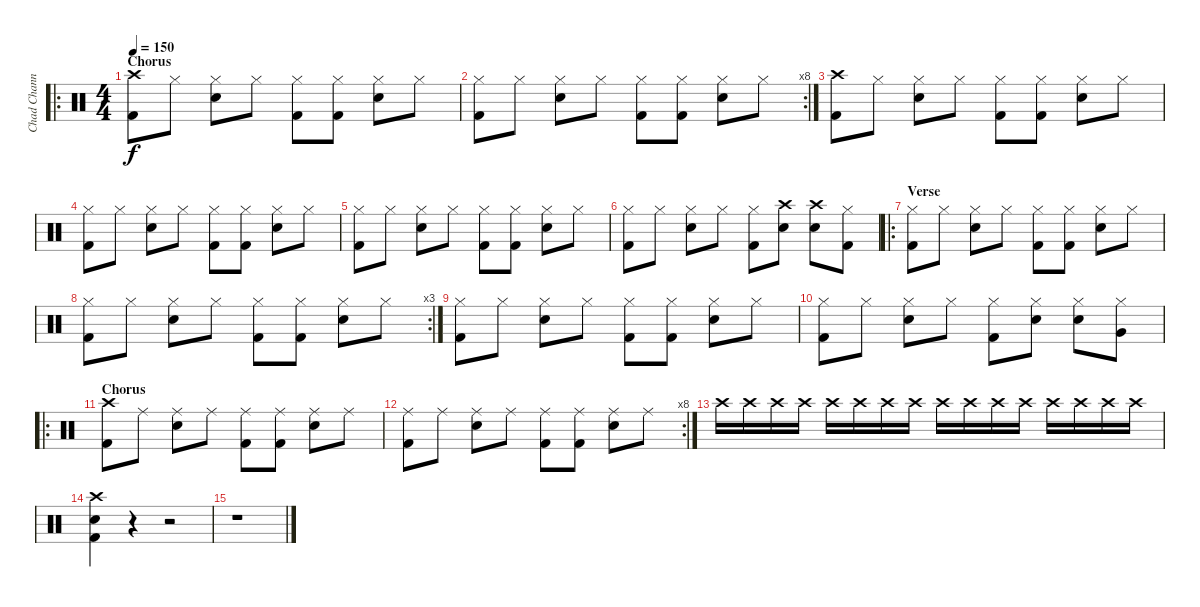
\track ("Chad Channing" "Chad Chann") {instrument percussion}
\staff {score}
\articulation defaults
\ro
\ts (4 4)
\section ("" "Chorus")
\tempo 150
\clef neutral
\ks c
("Crash high (hit)" "Kick (hit) 2").8{dy f} "Hi-Hat (closed)".8 ("Hi-Hat (closed)" "Electric Snare (hit)").8 "Hi-Hat (closed)".8 ("Hi-Hat (closed)" "Kick (hit) 2").8 ("Hi-Hat (closed)" "Kick (hit) 2").8 ("Hi-Hat (closed)" "Electric Snare (hit)").8 "Hi-Hat (closed)".8 |
\rc 8
("Hi-Hat (closed)" "Kick (hit) 2").8 "Hi-Hat (closed)".8 ("Hi-Hat (closed)" "Electric Snare (hit)").8 "Hi-Hat (closed)".8 ("Hi-Hat (closed)" "Kick (hit) 2").8 ("Hi-Hat (closed)" "Kick (hit) 2").8 ("Hi-Hat (closed)" "Electric Snare (hit)").8 "Hi-Hat (closed)".8 |
("Crash high (hit)" "Kick (hit) 2").8 "Hi-Hat (closed)".8 ("Hi-Hat (closed)" "Electric Snare (hit)").8 "Hi-Hat (closed)".8 ("Hi-Hat (closed)" "Kick (hit) 2").8 ("Hi-Hat (closed)" "Kick (hit) 2").8 ("Hi-Hat (closed)" "Electric Snare (hit)").8 "Hi-Hat (closed)".8 |
("Hi-Hat (closed)" "Kick (hit) 2").8 "Hi-Hat (closed)".8 ("Hi-Hat (closed)" "Electric Snare (hit)").8 "Hi-Hat (closed)".8 ("Hi-Hat (closed)" "Kick (hit) 2").8 ("Hi-Hat (closed)" "Kick (hit) 2").8 ("Hi-Hat (closed)" "Electric Snare (hit)").8 "Hi-Hat (closed)".8 |
("Hi-Hat (closed)" "Kick (hit) 2").8 "Hi-Hat (closed)".8 ("Hi-Hat (closed)" "Electric Snare (hit)").8 "Hi-Hat (closed)".8 ("Hi-Hat (closed)" "Kick (hit) 2").8 ("Hi-Hat (closed)" "Kick (hit) 2").8 ("Hi-Hat (closed)" "Electric Snare (hit)").8 "Hi-Hat (closed)".8 |
("Hi-Hat (closed)" "Kick (hit) 2").8 "Hi-Hat (closed)".8 ("Hi-Hat (closed)" "Electric Snare (hit)").8 "Hi-Hat (closed)".8 ("Hi-Hat (closed)" "Kick (hit) 2").8 ("Crash high (hit)" "Electric Snare (hit)").8 ("Crash high (hit)" "Electric Snare (hit)").8 ("Hi-Hat (closed)" "Kick (hit) 2").8 |
\ro
\section ("" "Verse")
("Hi-Hat (closed)" "Kick (hit) 2").8 "Hi-Hat (closed)".8 ("Hi-Hat (closed)" "Electric Snare (hit)").8 "Hi-Hat (closed)".8 ("Hi-Hat (closed)" "Kick (hit) 2").8 ("Hi-Hat (closed)" "Kick (hit) 2").8 ("Hi-Hat (closed)" "Electric Snare (hit)").8 "Hi-Hat (closed)".8 |
\rc 3
("Hi-Hat (closed)" "Kick (hit) 2").8 "Hi-Hat (closed)".8 ("Hi-Hat (closed)" "Electric Snare (hit)").8 "Hi-Hat (closed)".8 ("Hi-Hat (closed)" "Kick (hit) 2").8 ("Hi-Hat (closed)" "Kick (hit) 2").8 ("Hi-Hat (closed)" "Electric Snare (hit)").8 "Hi-Hat (closed)".8 |
("Hi-Hat (closed)" "Kick (hit) 2").8 "Hi-Hat (closed)".8 ("Hi-Hat (closed)" "Electric Snare (hit)").8 "Hi-Hat (closed)".8 ("Hi-Hat (closed)" "Kick (hit) 2").8 ("Hi-Hat (closed)" "Kick (hit) 2").8 ("Hi-Hat (closed)" "Electric Snare (hit)").8 "Hi-Hat (closed)".8 |
("Hi-Hat (closed)" "Kick (hit) 2").8 "Hi-Hat (closed)".8 ("Hi-Hat (closed)" "Electric Snare (hit)").8 "Hi-Hat (closed)".8 ("Hi-Hat (closed)" "Kick (hit) 2").8 ("Hi-Hat (closed)" "Electric Snare (hit)").8 ("Hi-Hat (closed)" "Electric Snare (hit)").8 ("Hi-Hat (closed)" "Very Low Tom (hit)").8 |
\ro
\section ("" "Chorus")
("Crash high (hit)" "Kick (hit) 2").8 "Ride (middle)".8 ("Ride (middle)" "Electric Snare (hit)").8 "Ride (middle)".8 ("Ride (middle)" "Kick (hit) 2").8 ("Ride (middle)" "Kick (hit) 2").8 ("Ride (middle)" "Electric Snare (hit)").8 "Ride (middle)".8 |
\rc 8
("Ride (middle)" "Kick (hit) 2").8 "Ride (middle)".8 ("Ride (middle)" "Electric Snare (hit)").8 "Ride (middle)".8 ("Ride (middle)" "Kick (hit) 2").8 ("Ride (middle)" "Kick (hit) 2").8 ("Ride (middle)" "Electric Snare (hit)").8 "Ride (middle)".8 |
"Crash high (hit)".16 "Crash high (hit)".16 "Crash high (hit)".16 "Crash high (hit)".16 "Crash high (hit)".16 "Crash high (hit)".16 "Crash high (hit)".16 "Crash high (hit)".16 "Crash high (hit)".16 "Crash high (hit)".16 "Crash high (hit)".16 "Crash high (hit)".16 "Crash high (hit)".16 "Crash high (hit)".16 "Crash high (hit)".16 "Crash high (hit)".16 |
("Crash high (hit)" "Electric Snare (hit)" "Kick (hit) 2").4 r.4 r.2 |
r.1
